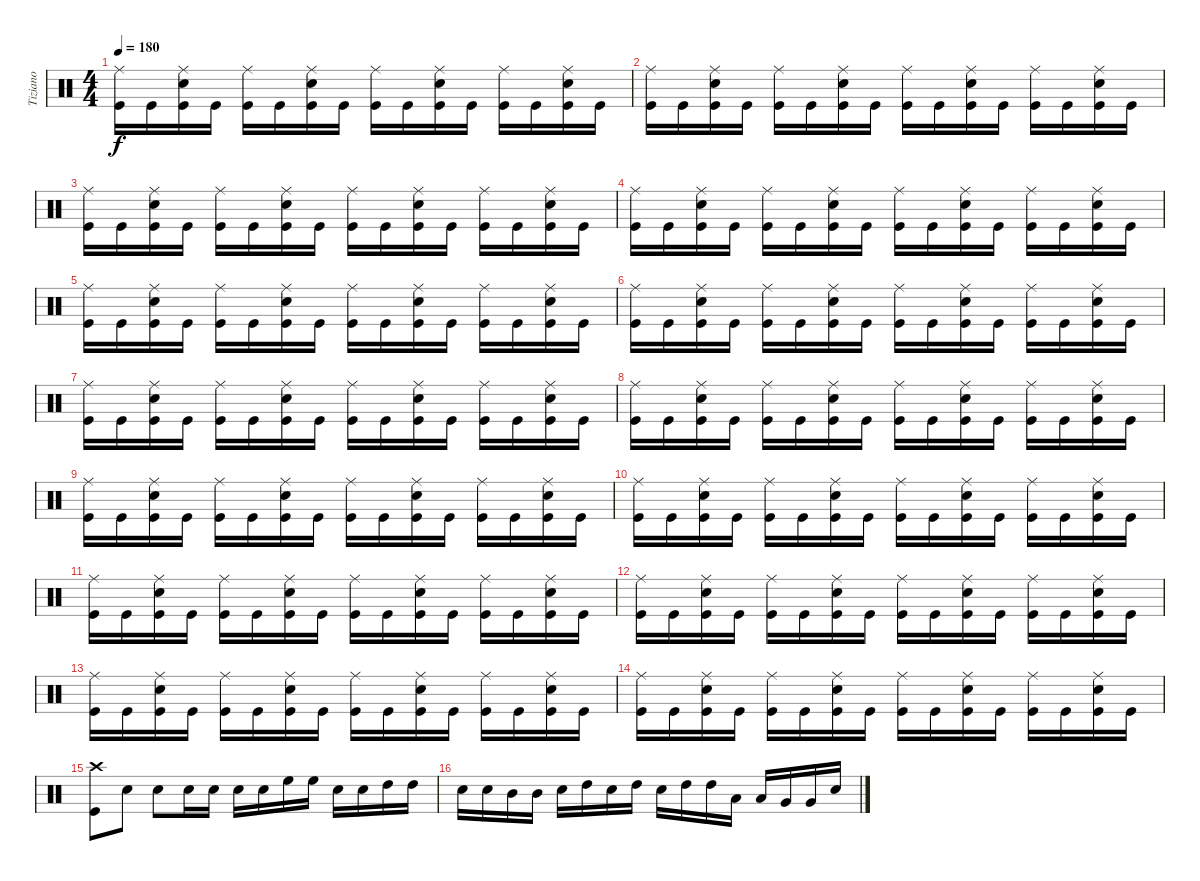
\track ("Tiziano" "Tiziano") {instrument percussion}
\staff {score}
\articulation defaults
\ts (4 4)
\tempo 180
\clef neutral
\ks c
("Kick (hit)" "Ride (middle)").16{dy f} "Kick (hit)".16 ("Kick (hit)" "Snare (hit) 2" "Ride (middle)").16 "Kick (hit)".16 ("Kick (hit)" "Ride (middle)").16 "Kick (hit)".16 ("Kick (hit)" "Snare (hit) 2" "Ride (middle)").16 "Kick (hit)".16 ("Kick (hit)" "Ride (middle)").16 "Kick (hit)".16 ("Kick (hit)" "Snare (hit) 2" "Ride (middle)").16 "Kick (hit)".16 ("Kick (hit)" "Ride (middle)").16 "Kick (hit)".16 ("Kick (hit)" "Snare (hit) 2" "Ride (middle)").16 "Kick (hit)".16 |
("Kick (hit)" "Ride (middle)").16 "Kick (hit)".16 ("Kick (hit)" "Snare (hit) 2" "Ride (middle)").16 "Kick (hit)".16 ("Kick (hit)" "Ride (middle)").16 "Kick (hit)".16 ("Kick (hit)" "Snare (hit) 2" "Ride (middle)").16 "Kick (hit)".16 ("Kick (hit)" "Ride (middle)").16 "Kick (hit)".16 ("Kick (hit)" "Snare (hit) 2" "Ride (middle)").16 "Kick (hit)".16 ("Kick (hit)" "Ride (middle)").16 "Kick (hit)".16 ("Kick (hit)" "Snare (hit) 2" "Ride (middle)").16 "Kick (hit)".16 |
("Kick (hit)" "Ride (middle)").16 "Kick (hit)".16 ("Kick (hit)" "Snare (hit) 2" "Ride (middle)").16 "Kick (hit)".16 ("Kick (hit)" "Ride (middle)").16 "Kick (hit)".16 ("Kick (hit)" "Snare (hit) 2" "Ride (middle)").16 "Kick (hit)".16 ("Kick (hit)" "Ride (middle)").16 "Kick (hit)".16 ("Kick (hit)" "Snare (hit) 2" "Ride (middle)").16 "Kick (hit)".16 ("Kick (hit)" "Ride (middle)").16 "Kick (hit)".16 ("Kick (hit)" "Snare (hit) 2" "Ride (middle)").16 "Kick (hit)".16 |
("Kick (hit)" "Ride (middle)").16 "Kick (hit)".16 ("Kick (hit)" "Snare (hit) 2" "Ride (middle)").16 "Kick (hit)".16 ("Kick (hit)" "Ride (middle)").16 "Kick (hit)".16 ("Kick (hit)" "Snare (hit) 2" "Ride (middle)").16 "Kick (hit)".16 ("Kick (hit)" "Ride (middle)").16 "Kick (hit)".16 ("Kick (hit)" "Snare (hit) 2" "Ride (middle)").16 "Kick (hit)".16 ("Kick (hit)" "Ride (middle)").16 "Kick (hit)".16 ("Kick (hit)" "Snare (hit) 2" "Ride (middle)").16 "Kick (hit)".16 |
("Kick (hit)" "Ride (middle)").16 "Kick (hit)".16 ("Kick (hit)" "Snare (hit) 2" "Ride (middle)").16 "Kick (hit)".16 ("Kick (hit)" "Ride (middle)").16 "Kick (hit)".16 ("Kick (hit)" "Snare (hit) 2" "Ride (middle)").16 "Kick (hit)".16 ("Kick (hit)" "Ride (middle)").16 "Kick (hit)".16 ("Kick (hit)" "Snare (hit) 2" "Ride (middle)").16 "Kick (hit)".16 ("Kick (hit)" "Ride (middle)").16 "Kick (hit)".16 ("Kick (hit)" "Snare (hit) 2" "Ride (middle)").16 "Kick (hit)".16 |
("Kick (hit)" "Ride (middle)").16 "Kick (hit)".16 ("Kick (hit)" "Snare (hit) 2" "Ride (middle)").16 "Kick (hit)".16 ("Kick (hit)" "Ride (middle)").16 "Kick (hit)".16 ("Kick (hit)" "Snare (hit) 2" "Ride (middle)").16 "Kick (hit)".16 ("Kick (hit)" "Ride (middle)").16 "Kick (hit)".16 ("Kick (hit)" "Snare (hit) 2" "Ride (middle)").16 "Kick (hit)".16 ("Kick (hit)" "Ride (middle)").16 "Kick (hit)".16 ("Kick (hit)" "Snare (hit) 2" "Ride (middle)").16 "Kick (hit)".16 |
("Kick (hit)" "Ride (middle)").16 "Kick (hit)".16 ("Kick (hit)" "Snare (hit) 2" "Ride (middle)").16 "Kick (hit)".16 ("Kick (hit)" "Ride (middle)").16 "Kick (hit)".16 ("Kick (hit)" "Snare (hit) 2" "Ride (middle)").16 "Kick (hit)".16 ("Kick (hit)" "Ride (middle)").16 "Kick (hit)".16 ("Kick (hit)" "Snare (hit) 2" "Ride (middle)").16 "Kick (hit)".16 ("Kick (hit)" "Ride (middle)").16 "Kick (hit)".16 ("Kick (hit)" "Snare (hit) 2" "Ride (middle)").16 "Kick (hit)".16 |
("Kick (hit)" "Ride (middle)").16 "Kick (hit)".16 ("Kick (hit)" "Snare (hit) 2" "Ride (middle)").16 "Kick (hit)".16 ("Kick (hit)" "Ride (middle)").16 "Kick (hit)".16 ("Kick (hit)" "Snare (hit) 2" "Ride (middle)").16 "Kick (hit)".16 ("Kick (hit)" "Ride (middle)").16 "Kick (hit)".16 ("Kick (hit)" "Snare (hit) 2" "Ride (middle)").16 "Kick (hit)".16 ("Kick (hit)" "Ride (middle)").16 "Kick (hit)".16 ("Kick (hit)" "Snare (hit) 2" "Ride (middle)").16 "Kick (hit)".16 |
("Kick (hit)" "Ride (middle)").16 "Kick (hit)".16 ("Kick (hit)" "Snare (hit) 2" "Ride (middle)").16 "Kick (hit)".16 ("Kick (hit)" "Ride (middle)").16 "Kick (hit)".16 ("Kick (hit)" "Snare (hit) 2" "Ride (middle)").16 "Kick (hit)".16 ("Kick (hit)" "Ride (middle)").16 "Kick (hit)".16 ("Kick (hit)" "Snare (hit) 2" "Ride (middle)").16 "Kick (hit)".16 ("Kick (hit)" "Ride (middle)").16 "Kick (hit)".16 ("Kick (hit)" "Snare (hit) 2" "Ride (middle)").16 "Kick (hit)".16 |
("Kick (hit)" "Ride (middle)").16 "Kick (hit)".16 ("Kick (hit)" "Snare (hit) 2" "Ride (middle)").16 "Kick (hit)".16 ("Kick (hit)" "Ride (middle)").16 "Kick (hit)".16 ("Kick (hit)" "Snare (hit) 2" "Ride (middle)").16 "Kick (hit)".16 ("Kick (hit)" "Ride (middle)").16 "Kick (hit)".16 ("Kick (hit)" "Snare (hit) 2" "Ride (middle)").16 "Kick (hit)".16 ("Kick (hit)" "Ride (middle)").16 "Kick (hit)".16 ("Kick (hit)" "Snare (hit) 2" "Ride (middle)").16 "Kick (hit)".16 |
("Kick (hit)" "Ride (middle)").16 "Kick (hit)".16 ("Kick (hit)" "Snare (hit) 2" "Ride (middle)").16 "Kick (hit)".16 ("Kick (hit)" "Ride (middle)").16 "Kick (hit)".16 ("Kick (hit)" "Snare (hit) 2" "Ride (middle)").16 "Kick (hit)".16 ("Kick (hit)" "Ride (middle)").16 "Kick (hit)".16 ("Kick (hit)" "Snare (hit) 2" "Ride (middle)").16 "Kick (hit)".16 ("Kick (hit)" "Ride (middle)").16 "Kick (hit)".16 ("Kick (hit)" "Snare (hit) 2" "Ride (middle)").16 "Kick (hit)".16 |
("Kick (hit)" "Ride (middle)").16 "Kick (hit)".16 ("Kick (hit)" "Snare (hit) 2" "Ride (middle)").16 "Kick (hit)".16 ("Kick (hit)" "Ride (middle)").16 "Kick (hit)".16 ("Kick (hit)" "Snare (hit) 2" "Ride (middle)").16 "Kick (hit)".16 ("Kick (hit)" "Ride (middle)").16 "Kick (hit)".16 ("Kick (hit)" "Snare (hit) 2" "Ride (middle)").16 "Kick (hit)".16 ("Kick (hit)" "Ride (middle)").16 "Kick (hit)".16 ("Kick (hit)" "Snare (hit) 2" "Ride (middle)").16 "Kick (hit)".16 |
("Kick (hit)" "Ride (middle)").16 "Kick (hit)".16 ("Kick (hit)" "Snare (hit) 2" "Ride (middle)").16 "Kick (hit)".16 ("Kick (hit)" "Ride (middle)").16 "Kick (hit)".16 ("Kick (hit)" "Snare (hit) 2" "Ride (middle)").16 "Kick (hit)".16 ("Kick (hit)" "Ride (middle)").16 "Kick (hit)".16 ("Kick (hit)" "Snare (hit) 2" "Ride (middle)").16 "Kick (hit)".16 ("Kick (hit)" "Ride (middle)").16 "Kick (hit)".16 ("Kick (hit)" "Snare (hit) 2" "Ride (middle)").16 "Kick (hit)".16 |
("Kick (hit)" "Ride (middle)").16 "Kick (hit)".16 ("Kick (hit)" "Snare (hit) 2" "Ride (middle)").16 "Kick (hit)".16 ("Kick (hit)" "Ride (middle)").16 "Kick (hit)".16 ("Kick (hit)" "Snare (hit) 2" "Ride (middle)").16 "Kick (hit)".16 ("Kick (hit)" "Ride (middle)").16 "Kick (hit)".16 ("Kick (hit)" "Snare (hit) 2" "Ride (middle)").16 "Kick (hit)".16 ("Kick (hit)" "Ride (middle)").16 "Kick (hit)".16 ("Kick (hit)" "Snare (hit) 2" "Ride (middle)").16 "Kick (hit)".16 |
("Crash high (hit)" "Kick (hit)").8 "Snare (hit) 2".8 "Snare (hit) 2".8 "Snare (hit) 2".16 "Snare (hit) 2".16 "Snare (hit) 2".16 "Snare (hit) 2".16 "High Floor Tom (hit)".16 "High Floor Tom (hit)".16 "Snare (hit) 2".16 "Snare (hit) 2".16 "High Tom (hit)".16 "High Tom (hit)".16 |
"Snare (hit) 2".16 "Snare (hit) 2".16 "Mid Tom (hit)".16 "Mid Tom (hit)".16 "Snare (hit) 2".16 "High Tom (hit)".16 "Snare (hit) 2".16 "High Tom (hit)".16 "Snare (hit) 2".16 "High Tom (hit)".16 "High Tom (hit)".16 "Low Tom (hit)".16 "Low Tom (hit)".16 "Very Low Tom (hit)".16 "Very Low Tom (hit)".16 "Snare (hit) 2".16
